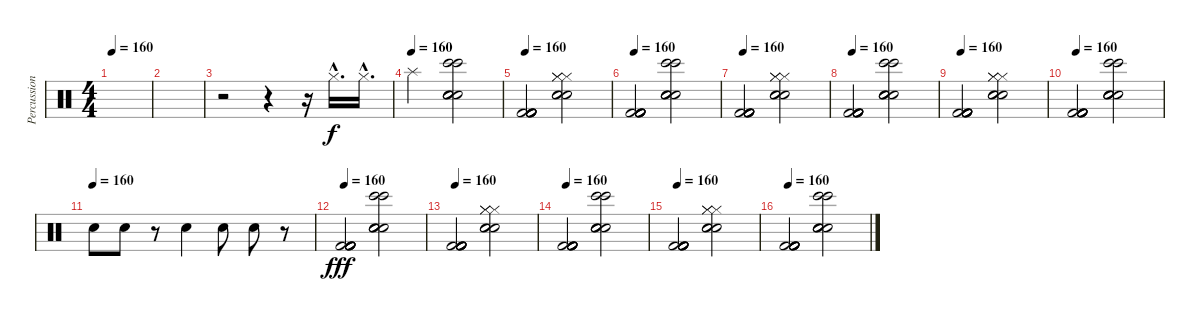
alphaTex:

\track ("Percussion" "Percussion") {instrument percussion}
\staff {score}
\articulation defaults
\ts (4 4)
\tempo 160
\tempo 125
\tempo 160
\clef neutral
\ks c
|
|
r.2 r.4 r.16 "Hi-Hat (closed)"{hac}.16{d} "Hi-Hat (closed)"{hac}.16{d} |
\tempo (160)
"Splash (hit)".2 ("Hand Clap (hit)" "Hand Clap (hit)" "Electric Snare (hit)" "Hand Clap (hit)" "Bongo High (hit)" "Bongo High (hit)").2 |
\tempo 160
("Kick (hit) 2" "Kick (hit) 2" "Kick (hit) 2" "Kick (hit) 2" "Kick (hit) 2" "Kick (hit) 2").2 ("Snare (hit) 2" "Snare (hit) 2" "Snare (hit) 2" "Hi-Hat (closed)" "Hi-Hat (closed)" "Hi-Hat (closed)").2 |
\tempo 160
("Kick (hit) 2" "Kick (hit) 2" "Kick (hit) 2" "Kick (hit) 2" "Kick (hit) 2" "Kick (hit) 2").2 ("Hand Clap (hit)" "Hand Clap (hit)" "Electric Snare (hit)" "Hand Clap (hit)" "Bongo High (hit)" "Bongo High (hit)").2 |
\tempo 160
("Kick (hit) 2" "Kick (hit) 2" "Kick (hit) 2" "Kick (hit) 2" "Kick (hit) 2" "Kick (hit) 2").2 ("Snare (hit) 2" "Snare (hit) 2" "Snare (hit) 2" "Hi-Hat (closed)" "Hi-Hat (closed)" "Hi-Hat (closed)").2 |
\tempo 160
("Kick (hit) 2" "Kick (hit) 2" "Kick (hit) 2" "Kick (hit) 2" "Kick (hit) 2" "Kick (hit) 2").2 ("Hand Clap (hit)" "Hand Clap (hit)" "Electric Snare (hit)" "Hand Clap (hit)" "Bongo High (hit)" "Bongo High (hit)").2 |
\tempo 160
("Kick (hit) 2" "Kick (hit) 2" "Kick (hit) 2" "Kick (hit) 2" "Kick (hit) 2" "Kick (hit) 2").2 ("Snare (hit) 2" "Snare (hit) 2" "Snare (hit) 2" "Hi-Hat (closed)" "Hi-Hat (closed)" "Hi-Hat (closed)").2 |
\tempo 160
("Kick (hit) 2" "Kick (hit) 2" "Kick (hit) 2" "Kick (hit) 2" "Kick (hit) 2" "Kick (hit) 2").2 ("Hand Clap (hit)" "Hand Clap (hit)" "Electric Snare (hit)" "Hand Clap (hit)" "Bongo High (hit)" "Bongo High (hit)").2 |
\tempo (160)
"Snare (hit) 2".8{dy f} "Snare (hit) 2".8 r.8 "Snare (hit) 2".4 "Snare (hit) 2".8 "Snare (hit) 2".8 r.8 |
\tempo 160
("Kick (hit) 2" "Kick (hit) 2" "Kick (hit) 2" "Kick (hit) 2" "Kick (hit) 2" "Kick (hit) 2").2{dy fff} ("Hand Clap (hit)" "Hand Clap (hit)" "Electric Snare (hit)" "Hand Clap (hit)" "Bongo High (hit)" "Bongo High (hit)").2 |
\tempo 160
("Kick (hit) 2" "Kick (hit) 2" "Kick (hit) 2" "Kick (hit) 2" "Kick (hit) 2" "Kick (hit) 2").2 ("Snare (hit) 2" "Snare (hit) 2" "Snare (hit) 2" "Hi-Hat (closed)" "Hi-Hat (closed)" "Hi-Hat (closed)").2 |
\tempo 160
("Kick (hit) 2" "Kick (hit) 2" "Kick (hit) 2" "Kick (hit) 2" "Kick (hit) 2" "Kick (hit) 2").2 ("Hand Clap (hit)" "Hand Clap (hit)" "Electric Snare (hit)" "Hand Clap (hit)" "Bongo High (hit)" "Bongo High (hit)").2 |
\tempo 160
("Kick (hit) 2" "Kick (hit) 2" "Kick (hit) 2" "Kick (hit) 2" "Kick (hit) 2" "Kick (hit) 2").2 ("Snare (hit) 2" "Snare (hit) 2" "Snare (hit) 2" "Hi-Hat (closed)" "Hi-Hat (closed)" "Hi-Hat (closed)").2 |
\tempo 160
("Kick (hit) 2" "Kick (hit) 2" "Kick (hit) 2" "Kick (hit) 2" "Kick (hit) 2" "Kick (hit) 2").2 ("Hand Clap (hit)" "Hand Clap (hit)" "Electric Snare (hit)" "Hand Clap (hit)" "Bongo High (hit)" "Bongo High (hit)").2
